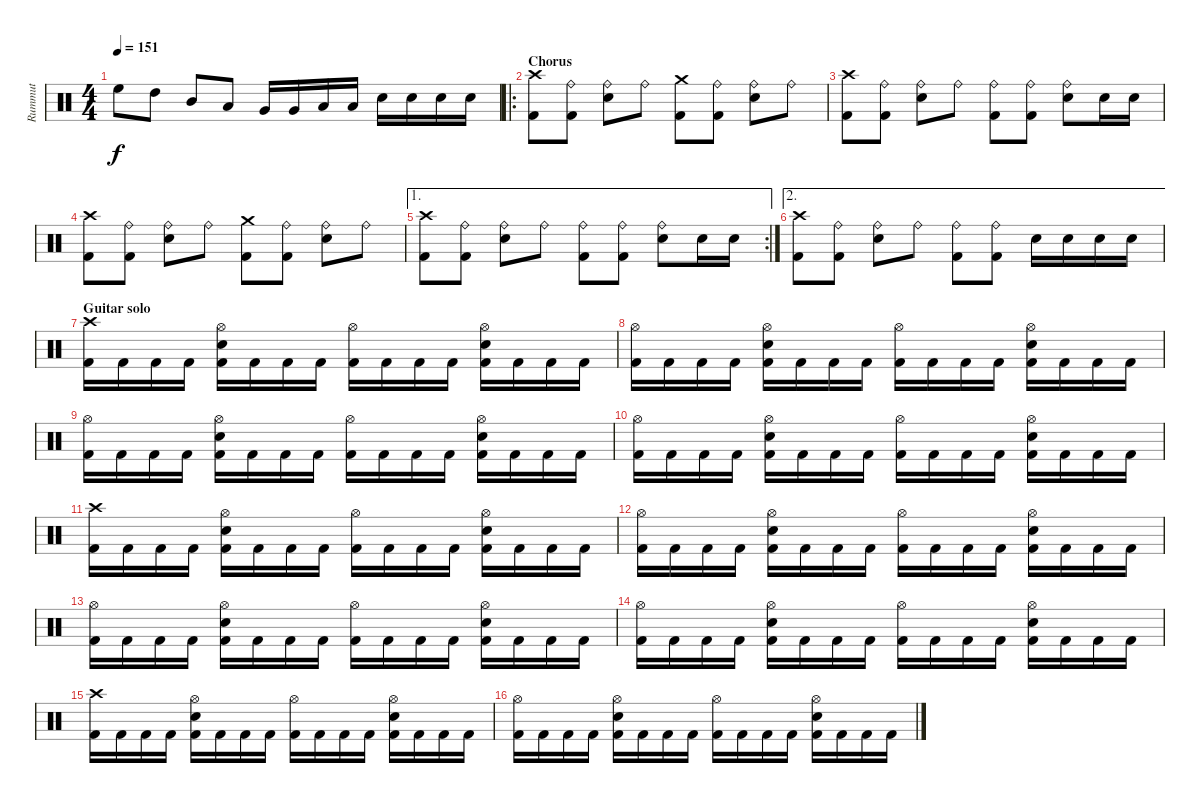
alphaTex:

\track ("Rummut" "Rummut") {instrument percussion}
\staff {score}
\articulation defaults
\ts (4 4)
\tempo 151
\clef neutral
\ks c "High Floor Tom (hit)".8{dy f} "High Tom (hit)".8 "Mid Tom (hit)".8 "Low Tom (hit)".8 "Very Low Tom (hit)".16 "Very Low Tom (hit)".16 "Low Floor Tom (hit)".16 "Low Floor Tom (hit)".16 "Electric Snare (hit)".16 "Electric Snare (hit)".16 "Electric Snare (hit)".16 "Electric Snare (hit)".16
|
\ro
\section ("" "Chorus")
("Crash high (hit)" "Kick (hit) 2").8 ("Ride (bell)" "Kick (hit) 2").8 ("Ride (bell)" "Electric Snare (hit)").8 "Ride (bell)".8 ("Crash medium (hit)" "Kick (hit) 2").8 ("Ride (bell)" "Kick (hit) 2").8 ("Ride (bell)" "Electric Snare (hit)").8 "Ride (bell)".8 |
("Crash high (hit)" "Kick (hit) 2").8 ("Ride (bell)" "Kick (hit) 2").8 ("Ride (bell)" "Electric Snare (hit)").8 "Ride (bell)".8 ("Ride (bell)" "Kick (hit) 2").8 ("Ride (bell)" "Kick (hit) 2").8 ("Ride (bell)" "Electric Snare (hit)").8 "Electric Snare (hit)".16 "Electric Snare (hit)".16 |
("Crash high (hit)" "Kick (hit) 2").8 ("Ride (bell)" "Kick (hit) 2").8 ("Ride (bell)" "Electric Snare (hit)").8 "Ride (bell)".8 ("Crash medium (hit)" "Kick (hit) 2").8 ("Ride (bell)" "Kick (hit) 2").8 ("Ride (bell)" "Electric Snare (hit)").8 "Ride (bell)".8 |
\ae 1
\rc 2
("Crash high (hit)" "Kick (hit) 2").8 ("Ride (bell)" "Kick (hit) 2").8 ("Ride (bell)" "Electric Snare (hit)").8 "Ride (bell)".8 ("Ride (bell)" "Kick (hit) 2").8 ("Ride (bell)" "Kick (hit) 2").8 ("Ride (bell)" "Electric Snare (hit)").8 "Electric Snare (hit)".16 "Electric Snare (hit)".16 |
\ae 2
("Crash high (hit)" "Kick (hit) 2").8 ("Ride (bell)" "Kick (hit) 2").8 ("Ride (bell)" "Electric Snare (hit)").8 "Ride (bell)".8 ("Ride (bell)" "Kick (hit) 2").8 ("Ride (bell)" "Kick (hit) 2").8 "Electric Snare (hit)".16 "Electric Snare (hit)".16 "Electric Snare (hit)".16 "Electric Snare (hit)".16 |
\section ("" "Guitar solo")
("Crash high (hit)" "Kick (hit) 2").16 "Kick (hit) 2".16 "Kick (hit) 2".16 "Kick (hit) 2".16 ("Hi-Hat (open)" "Electric Snare (hit)" "Kick (hit) 2").16 "Kick (hit) 2".16 "Kick (hit) 2".16 "Kick (hit) 2".16 ("Hi-Hat (open)" "Kick (hit) 2").16 "Kick (hit) 2".16 "Kick (hit) 2".16 "Kick (hit) 2".16 ("Hi-Hat (open)" "Electric Snare (hit)" "Kick (hit) 2").16 "Kick (hit) 2".16 "Kick (hit) 2".16 "Kick (hit) 2".16 |
("Hi-Hat (open)" "Kick (hit) 2").16 "Kick (hit) 2".16 "Kick (hit) 2".16 "Kick (hit) 2".16 ("Hi-Hat (open)" "Electric Snare (hit)" "Kick (hit) 2").16 "Kick (hit) 2".16 "Kick (hit) 2".16 "Kick (hit) 2".16 ("Hi-Hat (open)" "Kick (hit) 2").16 "Kick (hit) 2".16 "Kick (hit) 2".16 "Kick (hit) 2".16 ("Hi-Hat (open)" "Electric Snare (hit)" "Kick (hit) 2").16 "Kick (hit) 2".16 "Kick (hit) 2".16 "Kick (hit) 2".16 |
("Hi-Hat (open)" "Kick (hit) 2").16 "Kick (hit) 2".16 "Kick (hit) 2".16 "Kick (hit) 2".16 ("Hi-Hat (open)" "Electric Snare (hit)" "Kick (hit) 2").16 "Kick (hit) 2".16 "Kick (hit) 2".16 "Kick (hit) 2".16 ("Hi-Hat (open)" "Kick (hit) 2").16 "Kick (hit) 2".16 "Kick (hit) 2".16 "Kick (hit) 2".16 ("Hi-Hat (open)" "Electric Snare (hit)" "Kick (hit) 2").16 "Kick (hit) 2".16 "Kick (hit) 2".16 "Kick (hit) 2".16 |
("Hi-Hat (open)" "Kick (hit) 2").16 "Kick (hit) 2".16 "Kick (hit) 2".16 "Kick (hit) 2".16 ("Hi-Hat (open)" "Electric Snare (hit)" "Kick (hit) 2").16 "Kick (hit) 2".16 "Kick (hit) 2".16 "Kick (hit) 2".16 ("Hi-Hat (open)" "Kick (hit) 2").16 "Kick (hit) 2".16 "Kick (hit) 2".16 "Kick (hit) 2".16 ("Hi-Hat (open)" "Electric Snare (hit)" "Kick (hit) 2").16 "Kick (hit) 2".16 "Kick (hit) 2".16 "Kick (hit) 2".16 |
("Crash high (hit)" "Kick (hit) 2").16 "Kick (hit) 2".16 "Kick (hit) 2".16 "Kick (hit) 2".16 ("Hi-Hat (open)" "Electric Snare (hit)" "Kick (hit) 2").16 "Kick (hit) 2".16 "Kick (hit) 2".16 "Kick (hit) 2".16 ("Hi-Hat (open)" "Kick (hit) 2").16 "Kick (hit) 2".16 "Kick (hit) 2".16 "Kick (hit) 2".16 ("Hi-Hat (open)" "Electric Snare (hit)" "Kick (hit) 2").16 "Kick (hit) 2".16 "Kick (hit) 2".16 "Kick (hit) 2".16 |
("Hi-Hat (open)" "Kick (hit) 2").16 "Kick (hit) 2".16 "Kick (hit) 2".16 "Kick (hit) 2".16 ("Hi-Hat (open)" "Electric Snare (hit)" "Kick (hit) 2").16 "Kick (hit) 2".16 "Kick (hit) 2".16 "Kick (hit) 2".16 ("Hi-Hat (open)" "Kick (hit) 2").16 "Kick (hit) 2".16 "Kick (hit) 2".16 "Kick (hit) 2".16 ("Hi-Hat (open)" "Electric Snare (hit)" "Kick (hit) 2").16 "Kick (hit) 2".16 "Kick (hit) 2".16 "Kick (hit) 2".16 |
("Hi-Hat (open)" "Kick (hit) 2").16 "Kick (hit) 2".16 "Kick (hit) 2".16 "Kick (hit) 2".16 ("Hi-Hat (open)" "Electric Snare (hit)" "Kick (hit) 2").16 "Kick (hit) 2".16 "Kick (hit) 2".16 "Kick (hit) 2".16 ("Hi-Hat (open)" "Kick (hit) 2").16 "Kick (hit) 2".16 "Kick (hit) 2".16 "Kick (hit) 2".16 ("Hi-Hat (open)" "Electric Snare (hit)" "Kick (hit) 2").16 "Kick (hit) 2".16 "Kick (hit) 2".16 "Kick (hit) 2".16 |
("Hi-Hat (open)" "Kick (hit) 2").16 "Kick (hit) 2".16 "Kick (hit) 2".16 "Kick (hit) 2".16 ("Hi-Hat (open)" "Electric Snare (hit)" "Kick (hit) 2").16 "Kick (hit) 2".16 "Kick (hit) 2".16 "Kick (hit) 2".16 ("Hi-Hat (open)" "Kick (hit) 2").16 "Kick (hit) 2".16 "Kick (hit) 2".16 "Kick (hit) 2".16 ("Hi-Hat (open)" "Electric Snare (hit)" "Kick (hit) 2").16 "Kick (hit) 2".16 "Kick (hit) 2".16 "Kick (hit) 2".16 |
("Crash high (hit)" "Kick (hit) 2").16 "Kick (hit) 2".16 "Kick (hit) 2".16 "Kick (hit) 2".16 ("Hi-Hat (open)" "Electric Snare (hit)" "Kick (hit) 2").16 "Kick (hit) 2".16 "Kick (hit) 2".16 "Kick (hit) 2".16 ("Hi-Hat (open)" "Kick (hit) 2").16 "Kick (hit) 2".16 "Kick (hit) 2".16 "Kick (hit) 2".16 ("Hi-Hat (open)" "Electric Snare (hit)" "Kick (hit) 2").16 "Kick (hit) 2".16 "Kick (hit) 2".16 "Kick (hit) 2".16 |
("Hi-Hat (open)" "Kick (hit) 2").16 "Kick (hit) 2".16 "Kick (hit) 2".16 "Kick (hit) 2".16 ("Hi-Hat (open)" "Electric Snare (hit)" "Kick (hit) 2").16 "Kick (hit) 2".16 "Kick (hit) 2".16 "Kick (hit) 2".16 ("Hi-Hat (open)" "Kick (hit) 2").16 "Kick (hit) 2".16 "Kick (hit) 2".16 "Kick (hit) 2".16 ("Hi-Hat (open)" "Electric Snare (hit)" "Kick (hit) 2").16 "Kick (hit) 2".16 "Kick (hit) 2".16 "Kick (hit) 2".16
